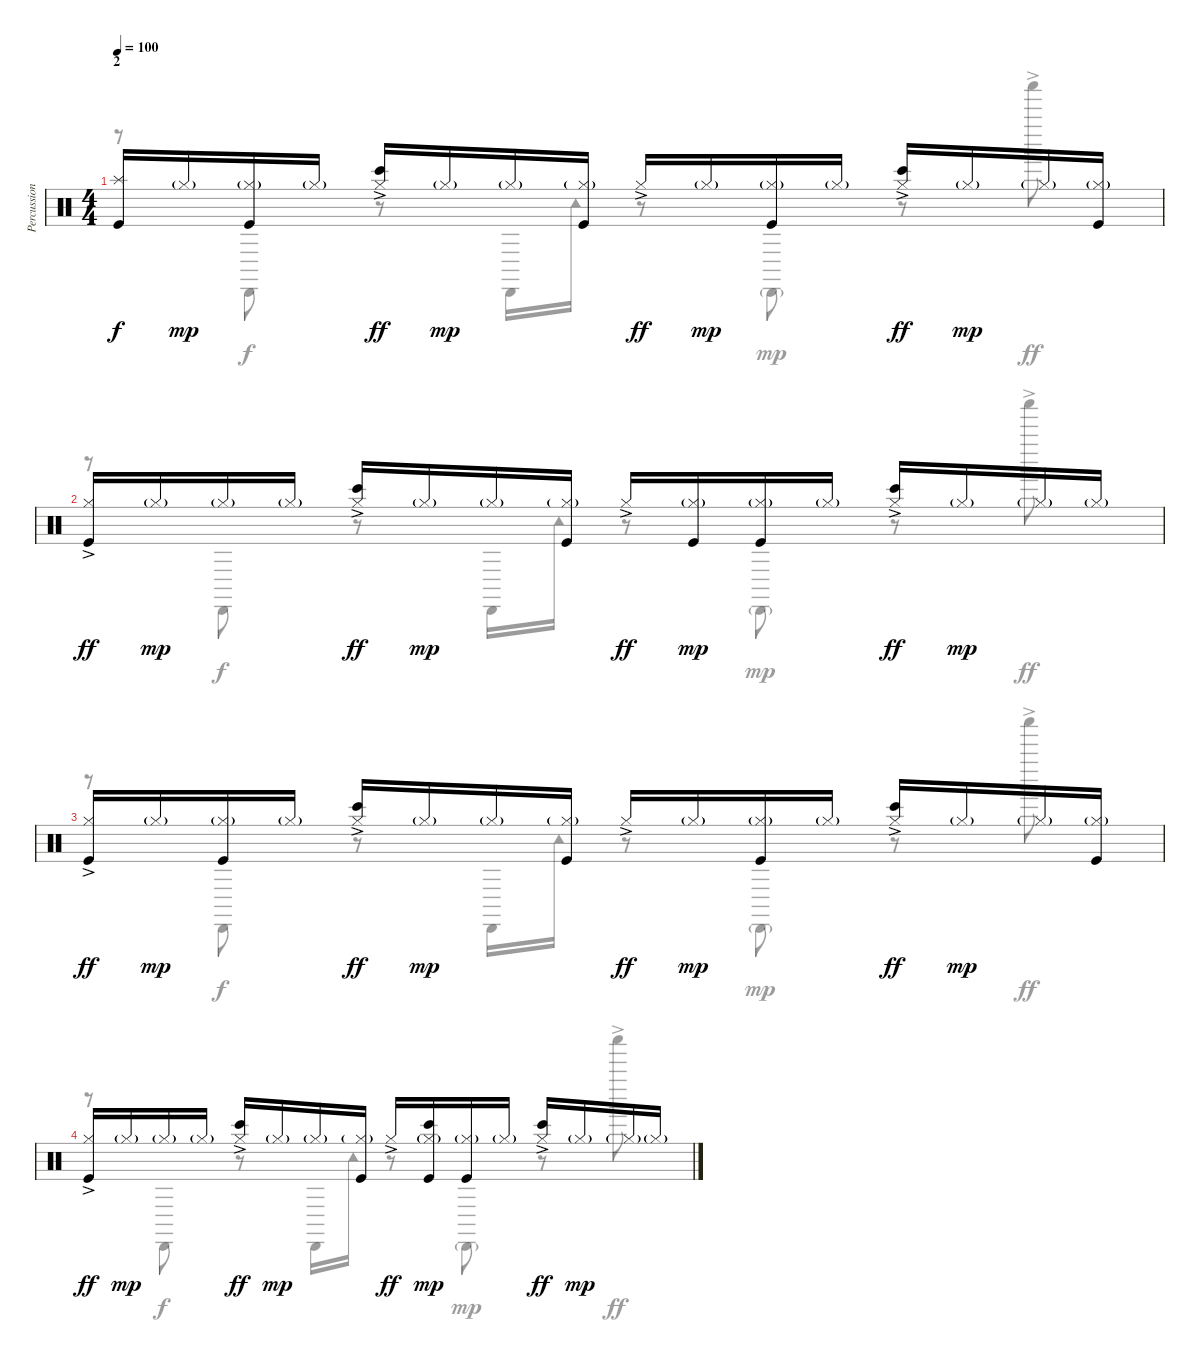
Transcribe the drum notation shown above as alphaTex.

\track ("Percussions" "Percussion") {instrument percussion}
\staff {score}
\articulation defaults
\voice
\ts (4 4)
\section ("" "2")
\tempo 100
\clef neutral
\ks c
("Kick (hit)" "Splash (hit)").16{dy f} "Hi-Hat (closed)"{g}.16{dy mp} ("Kick (hit)" "Hi-Hat (closed)"{g}).16 "Hi-Hat (closed)"{g}.16 ("Bongo High (hit)" "Hi-Hat (closed)"{ac}).16{dy ff} "Hi-Hat (closed)"{g}.16{dy mp} "Hi-Hat (closed)"{g}.16 ("Kick (hit)" "Hi-Hat (closed)"{g}).16 "Hi-Hat (closed)"{ac}.16{dy ff} "Hi-Hat (closed)"{g}.16{dy mp} ("Kick (hit)" "Hi-Hat (closed)"{g}).16 "Hi-Hat (closed)"{g}.16 ("Bongo High (hit)" "Hi-Hat (closed)"{ac}).16{dy ff} "Hi-Hat (closed)"{g}.16{dy mp} "Hi-Hat (closed)"{g}.16 ("Kick (hit)" "Hi-Hat (closed)"{g}).16 |
("Kick (hit)" "Hi-Hat (closed)"{ac}).16{dy ff} "Hi-Hat (closed)"{g}.16{dy mp} "Hi-Hat (closed)"{g}.16 "Hi-Hat (closed)"{g}.16 ("Bongo High (hit)" "Hi-Hat (closed)"{ac}).16{dy ff} "Hi-Hat (closed)"{g}.16{dy mp} "Hi-Hat (closed)"{g}.16 ("Kick (hit)" "Hi-Hat (closed)"{g}).16 "Hi-Hat (closed)"{ac}.16{dy ff} ("Kick (hit)" "Hi-Hat (closed)"{g}).16{dy mp} ("Kick (hit)" "Hi-Hat (closed)"{g}).16 "Hi-Hat (closed)"{g}.16 ("Bongo High (hit)" "Hi-Hat (closed)"{ac}).16{dy ff} "Hi-Hat (closed)"{g}.16{dy mp} "Hi-Hat (closed)"{g}.16 "Hi-Hat (closed)"{g}.16 |
("Kick (hit)" "Hi-Hat (closed)"{ac}).16{dy ff} "Hi-Hat (closed)"{g}.16{dy mp} ("Kick (hit)" "Hi-Hat (closed)"{g}).16 "Hi-Hat (closed)"{g}.16 ("Bongo High (hit)" "Hi-Hat (closed)"{ac}).16{dy ff} "Hi-Hat (closed)"{g}.16{dy mp} "Hi-Hat (closed)"{g}.16 ("Kick (hit)" "Hi-Hat (closed)"{g}).16 "Hi-Hat (closed)"{ac}.16{dy ff} "Hi-Hat (closed)"{g}.16{dy mp} ("Kick (hit)" "Hi-Hat (closed)"{g}).16 "Hi-Hat (closed)"{g}.16 ("Bongo High (hit)" "Hi-Hat (closed)"{ac}).16{dy ff} "Hi-Hat (closed)"{g}.16{dy mp} "Hi-Hat (closed)"{g}.16 ("Kick (hit)" "Hi-Hat (closed)"{g}).16 |
("Kick (hit)" "Hi-Hat (closed)"{ac}).16{dy ff} "Hi-Hat (closed)"{g}.16{dy mp} "Hi-Hat (closed)"{g}.16 "Hi-Hat (closed)"{g}.16 ("Bongo High (hit)" "Hi-Hat (closed)"{ac}).16{dy ff} "Hi-Hat (closed)"{g}.16{dy mp} "Hi-Hat (closed)"{g}.16 ("Kick (hit)" "Hi-Hat (closed)"{g}).16 "Hi-Hat (closed)"{ac}.16{dy ff} ("Kick (hit)" "Bongo High (hit)" "Hi-Hat (closed)"{g}).16{dy mp} ("Kick (hit)" "Hi-Hat (closed)"{g}).16 "Hi-Hat (closed)"{g}.16 ("Bongo High (hit)" "Hi-Hat (closed)"{ac}).16{dy ff} "Hi-Hat (closed)"{g}.16{dy mp} "Hi-Hat (closed)"{g}.16 "Hi-Hat (closed)"{g}.16
\voice
\clef neutral
\ottava regular
\simile none
\ks c
r.8{dy f} "Cabasa (hit)".8 r.8 "Cabasa (hit)".16 "Tambourine (hit)".16 r.8 "Cabasa (hit)"{g}.8{dy mp} r.8 "Shaker (hit)"{ac}.8{dy ff} |
r.8 "Cabasa (hit)".8{dy f} r.8 "Cabasa (hit)".16 "Tambourine (hit)".16 r.8 "Cabasa (hit)"{g}.8{dy mp} r.8 "Shaker (hit)"{ac}.8{dy ff} |
r.8 "Cabasa (hit)".8{dy f} r.8 "Cabasa (hit)".16 "Tambourine (hit)".16 r.8 "Cabasa (hit)"{g}.8{dy mp} r.8 "Shaker (hit)"{ac}.8{dy ff} |
r.8 "Cabasa (hit)".8{dy f} r.8 "Cabasa (hit)".16 "Tambourine (hit)".16 r.8 "Cabasa (hit)"{g}.8{dy mp} r.8 "Shaker (hit)"{ac}.8{dy ff}
